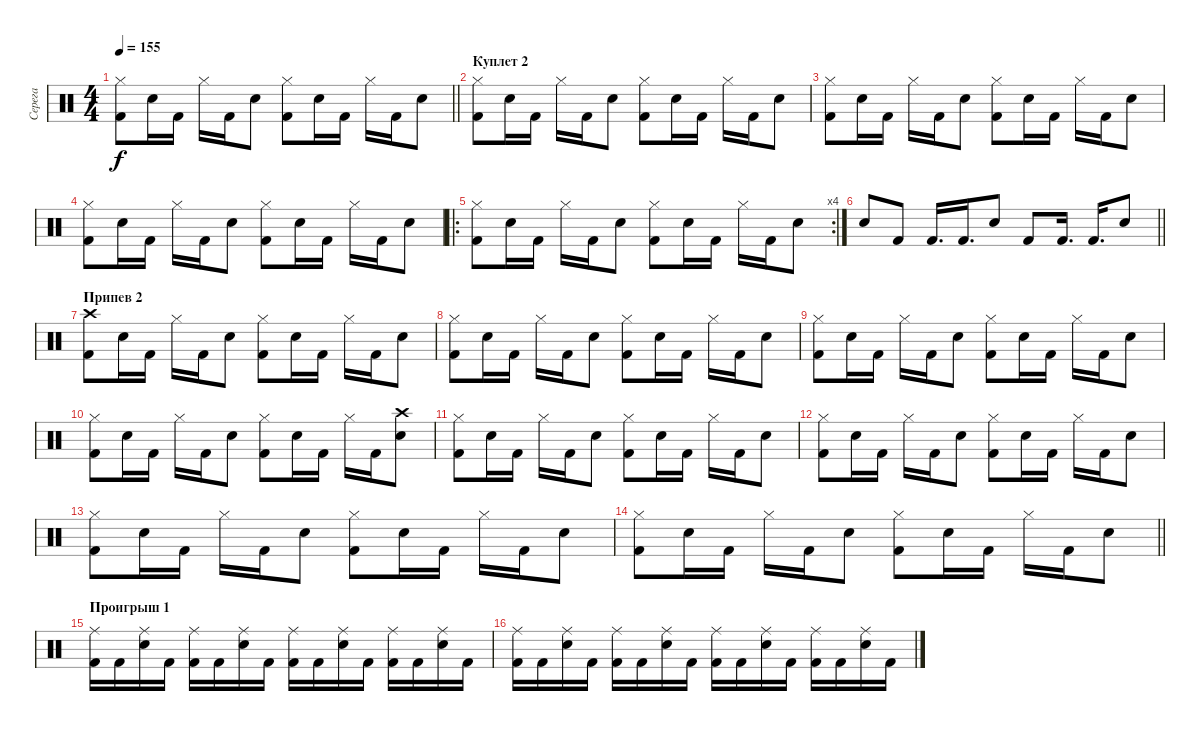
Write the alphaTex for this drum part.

\track ("Серега" "Серега") {instrument percussion}
\staff {score}
\articulation defaults
\ts (4 4)
\tempo 155
\clef neutral
\barLineRight lightlight
\ks c
("Hi-Hat (closed)" "Kick (hit) 2").8{dy f} "Snare (hit) 2".16 "Kick (hit) 2".16 "Hi-Hat (closed)".16 "Kick (hit) 2".16 "Snare (hit) 2".8 ("Hi-Hat (closed)" "Kick (hit) 2").8 "Snare (hit) 2".16 "Kick (hit) 2".16 "Hi-Hat (closed)".16 "Kick (hit) 2".16 "Snare (hit) 2".8 |
\section ("" "Куплет 2")
("Hi-Hat (closed)" "Kick (hit) 2").8 "Snare (hit) 2".16 "Kick (hit) 2".16 "Hi-Hat (closed)".16 "Kick (hit) 2".16 "Snare (hit) 2".8 ("Hi-Hat (closed)" "Kick (hit) 2").8 "Snare (hit) 2".16 "Kick (hit) 2".16 "Hi-Hat (closed)".16 "Kick (hit) 2".16 "Snare (hit) 2".8 |
("Hi-Hat (closed)" "Kick (hit) 2").8 "Snare (hit) 2".16 "Kick (hit) 2".16 "Hi-Hat (closed)".16 "Kick (hit) 2".16 "Snare (hit) 2".8 ("Hi-Hat (closed)" "Kick (hit) 2").8 "Snare (hit) 2".16 "Kick (hit) 2".16 "Hi-Hat (closed)".16 "Kick (hit) 2".16 "Snare (hit) 2".8 |
("Hi-Hat (closed)" "Kick (hit) 2").8 "Snare (hit) 2".16 "Kick (hit) 2".16 "Hi-Hat (closed)".16 "Kick (hit) 2".16 "Snare (hit) 2".8 ("Hi-Hat (closed)" "Kick (hit) 2").8 "Snare (hit) 2".16 "Kick (hit) 2".16 "Hi-Hat (closed)".16 "Kick (hit) 2".16 "Snare (hit) 2".8 |
\ro
\rc 4
("Hi-Hat (closed)" "Kick (hit) 2").8 "Snare (hit) 2".16 "Kick (hit) 2".16 "Hi-Hat (closed)".16 "Kick (hit) 2".16 "Snare (hit) 2".8 ("Hi-Hat (closed)" "Kick (hit) 2").8 "Snare (hit) 2".16 "Kick (hit) 2".16 "Hi-Hat (closed)".16 "Kick (hit) 2".16 "Snare (hit) 2".8 |
\barLineRight lightlight "Snare (hit) 2".8 "Kick (hit) 2".8 "Kick (hit) 2".16{d} "Kick (hit) 2".16{d} "Snare (hit) 2".8 "Kick (hit) 2".8 "Kick (hit) 2".16{d} "Kick (hit) 2".16{d} "Snare (hit) 2".8
|
\section ("" "Припев 2")
("Crash high (hit)" "Kick (hit) 2").8 "Snare (hit) 2".16 "Kick (hit) 2".16 "Hi-Hat (closed)".16 "Kick (hit) 2".16 "Snare (hit) 2".8 ("Hi-Hat (closed)" "Kick (hit) 2").8 "Snare (hit) 2".16 "Kick (hit) 2".16 "Hi-Hat (closed)".16 "Kick (hit) 2".16 "Snare (hit) 2".8 |
("Hi-Hat (closed)" "Kick (hit) 2").8 "Snare (hit) 2".16 "Kick (hit) 2".16 "Hi-Hat (closed)".16 "Kick (hit) 2".16 "Snare (hit) 2".8 ("Hi-Hat (closed)" "Kick (hit) 2").8 "Snare (hit) 2".16 "Kick (hit) 2".16 "Hi-Hat (closed)".16 "Kick (hit) 2".16 "Snare (hit) 2".8 |
("Hi-Hat (closed)" "Kick (hit) 2").8 "Snare (hit) 2".16 "Kick (hit) 2".16 "Hi-Hat (closed)".16 "Kick (hit) 2".16 "Snare (hit) 2".8 ("Hi-Hat (closed)" "Kick (hit) 2").8 "Snare (hit) 2".16 "Kick (hit) 2".16 "Hi-Hat (closed)".16 "Kick (hit) 2".16 "Snare (hit) 2".8 |
("Hi-Hat (closed)" "Kick (hit) 2").8 "Snare (hit) 2".16 "Kick (hit) 2".16 "Hi-Hat (closed)".16 "Kick (hit) 2".16 "Snare (hit) 2".8 ("Hi-Hat (closed)" "Kick (hit) 2").8 "Snare (hit) 2".16 "Kick (hit) 2".16 "Hi-Hat (closed)".16 "Kick (hit) 2".16 ("Crash high (hit)" "Snare (hit) 2").8 |
("Hi-Hat (closed)" "Kick (hit) 2").8 "Snare (hit) 2".16 "Kick (hit) 2".16 "Hi-Hat (closed)".16 "Kick (hit) 2".16 "Snare (hit) 2".8 ("Hi-Hat (closed)" "Kick (hit) 2").8 "Snare (hit) 2".16 "Kick (hit) 2".16 "Hi-Hat (closed)".16 "Kick (hit) 2".16 "Snare (hit) 2".8 |
("Hi-Hat (closed)" "Kick (hit) 2").8 "Snare (hit) 2".16 "Kick (hit) 2".16 "Hi-Hat (closed)".16 "Kick (hit) 2".16 "Snare (hit) 2".8 ("Hi-Hat (closed)" "Kick (hit) 2").8 "Snare (hit) 2".16 "Kick (hit) 2".16 "Hi-Hat (closed)".16 "Kick (hit) 2".16 "Snare (hit) 2".8 |
("Hi-Hat (closed)" "Kick (hit) 2").8 "Snare (hit) 2".16 "Kick (hit) 2".16 "Hi-Hat (closed)".16 "Kick (hit) 2".16 "Snare (hit) 2".8 ("Hi-Hat (closed)" "Kick (hit) 2").8 "Snare (hit) 2".16 "Kick (hit) 2".16 "Hi-Hat (closed)".16 "Kick (hit) 2".16 "Snare (hit) 2".8 |
\barLineRight lightlight
("Hi-Hat (closed)" "Kick (hit) 2").8 "Snare (hit) 2".16 "Kick (hit) 2".16 "Hi-Hat (closed)".16 "Kick (hit) 2".16 "Snare (hit) 2".8 ("Hi-Hat (closed)" "Kick (hit) 2").8 "Snare (hit) 2".16 "Kick (hit) 2".16 "Hi-Hat (closed)".16 "Kick (hit) 2".16 "Snare (hit) 2".8 |
\section ("" "Проигрыш 1")
("Kick (hit) 2" "Ride (middle)").16 "Kick (hit) 2".16 ("Snare (hit) 2" "Ride (middle)").16 "Kick (hit) 2".16 ("Kick (hit) 2" "Ride (middle)").16 "Kick (hit) 2".16 ("Snare (hit) 2" "Ride (middle)").16 "Kick (hit) 2".16 ("Kick (hit) 2" "Ride (middle)").16 "Kick (hit) 2".16 ("Snare (hit) 2" "Ride (middle)").16 "Kick (hit) 2".16 ("Kick (hit) 2" "Ride (middle)").16 "Kick (hit) 2".16 ("Snare (hit) 2" "Ride (middle)").16 "Kick (hit) 2".16 |
("Kick (hit) 2" "Ride (middle)").16 "Kick (hit) 2".16 ("Snare (hit) 2" "Ride (middle)").16 "Kick (hit) 2".16 ("Kick (hit) 2" "Ride (middle)").16 "Kick (hit) 2".16 ("Snare (hit) 2" "Ride (middle)").16 "Kick (hit) 2".16 ("Kick (hit) 2" "Ride (middle)").16 "Kick (hit) 2".16 ("Snare (hit) 2" "Ride (middle)").16 "Kick (hit) 2".16 ("Kick (hit) 2" "Ride (middle)").16 "Kick (hit) 2".16 ("Snare (hit) 2" "Ride (middle)").16 "Kick (hit) 2".16
